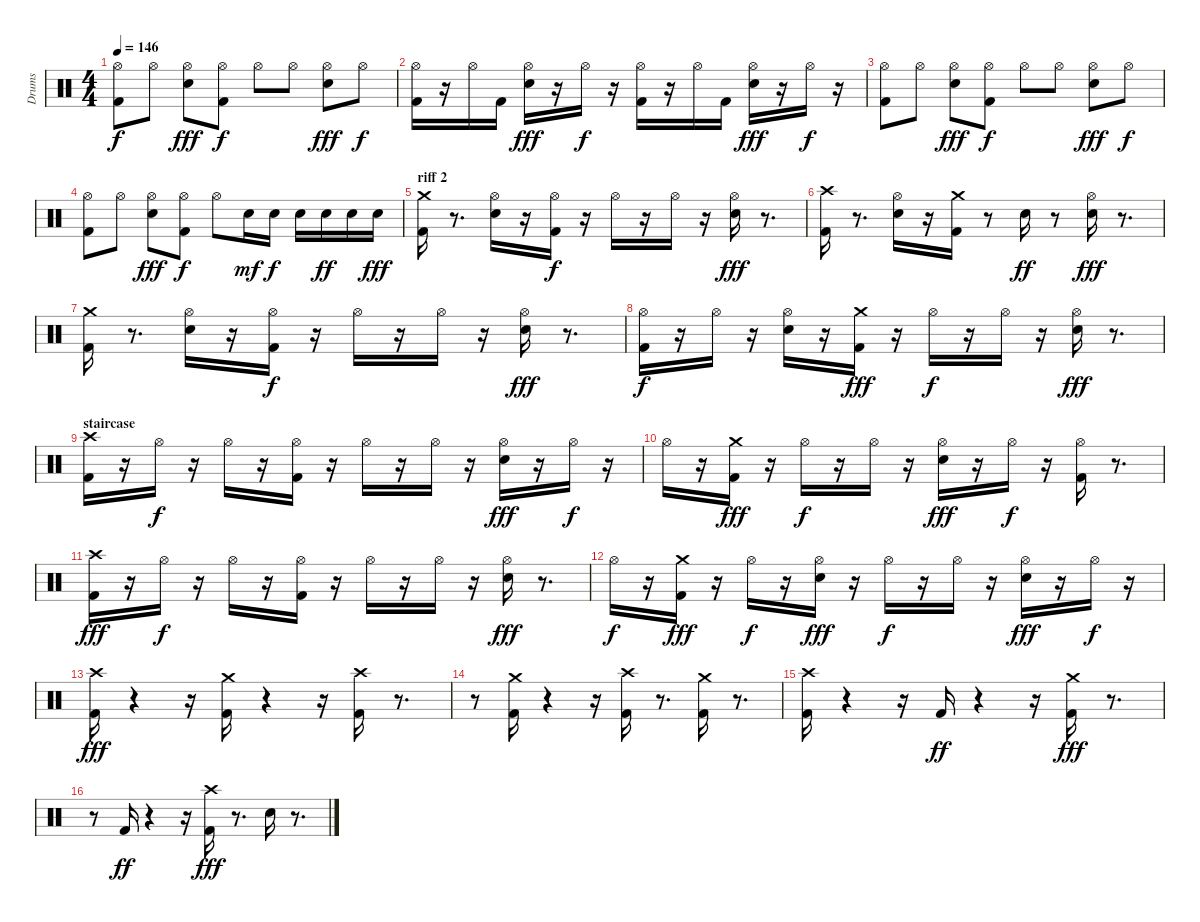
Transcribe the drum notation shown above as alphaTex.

\track ("Drums" "Drums") {instrument percussion}
\staff {score}
\articulation defaults
\ts (4 4)
\tempo 146
\clef neutral
\ks c
("Kick (hit) 2" "Hi-Hat (open)").8{dy f} "Hi-Hat (open)".8 ("Snare (hit) 2" "Hi-Hat (open)").8{dy fff} ("Kick (hit) 2" "Hi-Hat (open)").8{dy f} "Hi-Hat (open)".8 "Hi-Hat (open)".8 ("Snare (hit) 2" "Hi-Hat (open)").8{dy fff} "Hi-Hat (open)".8{dy f} |
("Kick (hit) 2" "Hi-Hat (open)").16 r.16 "Hi-Hat (open)".16 "Kick (hit) 2".16 ("Snare (hit) 2" "Hi-Hat (open)").16{dy fff} r.16 "Hi-Hat (open)".16{dy f} r.16 ("Kick (hit) 2" "Hi-Hat (open)").16 r.16 "Hi-Hat (open)".16 "Kick (hit) 2".16 ("Snare (hit) 2" "Hi-Hat (open)").16{dy fff} r.16 "Hi-Hat (open)".16{dy f} r.16 |
("Kick (hit) 2" "Hi-Hat (open)").8 "Hi-Hat (open)".8 ("Snare (hit) 2" "Hi-Hat (open)").8{dy fff} ("Kick (hit) 2" "Hi-Hat (open)").8{dy f} "Hi-Hat (open)".8 "Hi-Hat (open)".8 ("Snare (hit) 2" "Hi-Hat (open)").8{dy fff} "Hi-Hat (open)".8{dy f} |
("Kick (hit) 2" "Hi-Hat (open)").8 "Hi-Hat (open)".8 ("Snare (hit) 2" "Hi-Hat (open)").8{dy fff} ("Kick (hit) 2" "Hi-Hat (open)").8{dy f} "Hi-Hat (open)".8 "Snare (hit) 2".16{dy mf} "Snare (hit) 2".16{dy f} "Snare (hit) 2".16 "Snare (hit) 2".16{dy ff} "Snare (hit) 2".16 "Snare (hit) 2".16{dy fff} |
\section ("" "riff 2")
("Kick (hit) 2" "Crash medium (hit)").16 r.8{d} ("Snare (hit) 2" "Hi-Hat (open)").16 r.16 ("Kick (hit) 2" "Hi-Hat (open)").16{dy f} r.16 "Hi-Hat (open)".16 r.16 "Hi-Hat (open)".16 r.16 ("Snare (hit) 2" "Hi-Hat (open)").16{dy fff} r.8{d} |
("Kick (hit) 2" "Crash high (hit)").16 r.8{d} ("Snare (hit) 2" "Hi-Hat (open)").16 r.16 ("Kick (hit) 2" "Crash medium (hit)").16 r.8 "Snare (hit) 2".16{dy ff} r.8 ("Snare (hit) 2" "Hi-Hat (open)").16{dy fff} r.8{d} |
("Kick (hit) 2" "Crash medium (hit)").16 r.8{d} ("Snare (hit) 2" "Hi-Hat (open)").16 r.16 ("Kick (hit) 2" "Hi-Hat (open)").16{dy f} r.16 "Hi-Hat (open)".16 r.16 "Hi-Hat (open)".16 r.16 ("Snare (hit) 2" "Hi-Hat (open)").16{dy fff} r.8{d} |
("Kick (hit) 2" "Hi-Hat (open)").16{dy f} r.16 "Hi-Hat (open)".16 r.16 ("Snare (hit) 2" "Hi-Hat (open)").16 r.16 ("Kick (hit) 2" "Crash medium (hit)").16{dy fff} r.16 "Hi-Hat (open)".16{dy f} r.16 "Hi-Hat (open)".16 r.16 ("Snare (hit) 2" "Hi-Hat (open)").16{dy fff} r.8{d} |
\section ("" "staircase")
("Kick (hit) 2" "Crash high (hit)").16 r.16 "Hi-Hat (open)".16{dy f} r.16 "Hi-Hat (open)".16 r.16 ("Kick (hit) 2" "Hi-Hat (open)").16 r.16 "Hi-Hat (open)".16 r.16 "Hi-Hat (open)".16 r.16 ("Snare (hit) 2" "Hi-Hat (open)").16{dy fff} r.16 "Hi-Hat (open)".16{dy f} r.16 |
"Hi-Hat (open)".16 r.16 ("Kick (hit) 2" "Crash medium (hit)").16{dy fff} r.16 "Hi-Hat (open)".16{dy f} r.16 "Hi-Hat (open)".16 r.16 ("Snare (hit) 2" "Hi-Hat (open)").16{dy fff} r.16 "Hi-Hat (open)".16{dy f} r.16 ("Kick (hit) 2" "Hi-Hat (open)").16 r.8{d} |
("Kick (hit) 2" "Crash high (hit)").16{dy fff} r.16 "Hi-Hat (open)".16{dy f} r.16 "Hi-Hat (open)".16 r.16 ("Kick (hit) 2" "Hi-Hat (open)").16 r.16 "Hi-Hat (open)".16 r.16 "Hi-Hat (open)".16 r.16 ("Snare (hit) 2" "Hi-Hat (open)").16{dy fff} r.8{d} |
"Hi-Hat (open)".16{dy f} r.16 ("Kick (hit) 2" "Crash medium (hit)").16{dy fff} r.16 "Hi-Hat (open)".16{dy f} r.16 ("Snare (hit) 2" "Hi-Hat (open)").16{dy fff} r.16 "Hi-Hat (open)".16{dy f} r.16 "Hi-Hat (open)".16 r.16 ("Snare (hit) 2" "Hi-Hat (open)").16{dy fff} r.16 "Hi-Hat (open)".16{dy f} r.16 |
("Kick (hit) 2" "Crash high (hit)").16{dy fff} r.4 r.16 ("Kick (hit) 2" "Crash medium (hit)").16 r.4 r.16 ("Kick (hit) 2" "Crash high (hit)").16 r.8{d} |
r.8 ("Kick (hit) 2" "Crash medium (hit)").16 r.4 r.16 ("Kick (hit) 2" "Crash high (hit)").16 r.8{d} ("Kick (hit) 2" "Crash medium (hit)").16 r.8{d} |
("Kick (hit) 2" "Crash high (hit)").16 r.4 r.16 "Kick (hit) 2".16{dy ff} r.4 r.16 ("Kick (hit) 2" "Crash medium (hit)").16{dy fff} r.8{d} |
r.8 "Kick (hit) 2".16{dy ff} r.4 r.16 ("Kick (hit) 2" "Crash high (hit)").16{dy fff} r.8{d} "Snare (hit) 2".16 r.8{d}
